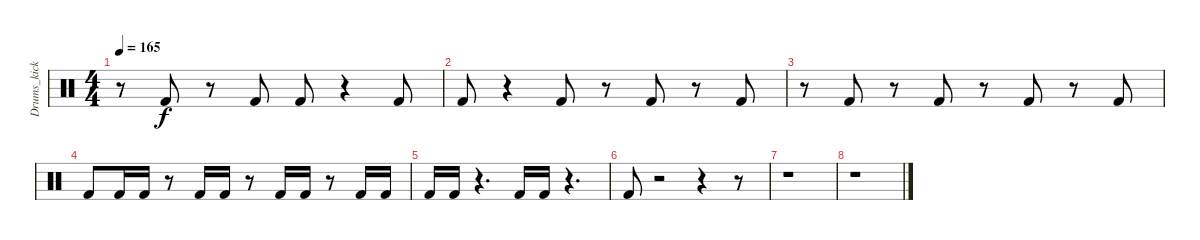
\track ("Drums_kick" "Drums_kick") {instrument percussion}
\staff {score}
\articulation defaults
\ts (4 4)
\tempo 165
\clef neutral
\ks c
r.8{dy f} "Kick (hit) 2".8 r.8 "Kick (hit) 2".8 "Kick (hit) 2".8 r.4 "Kick (hit) 2".8 |
"Kick (hit) 2".8 r.4 "Kick (hit) 2".8 r.8 "Kick (hit) 2".8 r.8 "Kick (hit) 2".8 |
r.8 "Kick (hit) 2".8 r.8 "Kick (hit) 2".8 r.8 "Kick (hit) 2".8 r.8 "Kick (hit) 2".8 |
"Kick (hit) 2".8 "Kick (hit) 2".16 "Kick (hit) 2".16 r.8 "Kick (hit) 2".16 "Kick (hit) 2".16 r.8 "Kick (hit) 2".16 "Kick (hit) 2".16 r.8 "Kick (hit) 2".16 "Kick (hit) 2".16 |
"Kick (hit) 2".16 "Kick (hit) 2".16 r.4{d} "Kick (hit) 2".16 "Kick (hit) 2".16 r.4{d} |
"Kick (hit) 2".8 r.2 r.4 r.8 |
r.1 |
r.1
